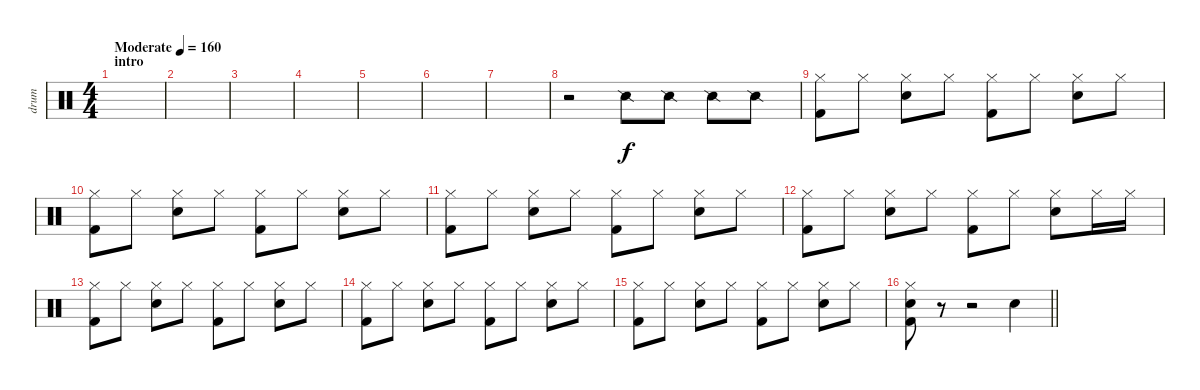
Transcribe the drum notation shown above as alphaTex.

\track ("drum" "drum") {instrument percussion}
\staff {score}
\articulation defaults
\ts (4 4)
\section ("" "intro")
\tempo (160 "Moderate")
\clef neutral
\ks c
|
|
|
|
|
|
|
r.2 "Snare (side stick) 2".8 "Snare (side stick) 2".8 "Snare (side stick) 2".8 "Snare (side stick) 2".8 |
("Hi-Hat (closed)" "Kick (hit) 2").8 "Hi-Hat (closed)".8 ("Hi-Hat (closed)" "Snare (hit) 2").8 "Hi-Hat (closed)".8 ("Hi-Hat (closed)" "Kick (hit) 2").8 "Hi-Hat (closed)".8 ("Hi-Hat (closed)" "Snare (hit) 2").8 "Hi-Hat (closed)".8 |
("Hi-Hat (closed)" "Kick (hit) 2").8 "Hi-Hat (closed)".8 ("Hi-Hat (closed)" "Snare (hit) 2").8 "Hi-Hat (closed)".8 ("Hi-Hat (closed)" "Kick (hit) 2").8 "Hi-Hat (closed)".8 ("Hi-Hat (closed)" "Snare (hit) 2").8 "Hi-Hat (closed)".8 |
("Hi-Hat (closed)" "Kick (hit) 2").8 "Hi-Hat (closed)".8 ("Hi-Hat (closed)" "Snare (hit) 2").8 "Hi-Hat (closed)".8 ("Hi-Hat (closed)" "Kick (hit) 2").8 "Hi-Hat (closed)".8 ("Hi-Hat (closed)" "Snare (hit) 2").8 "Hi-Hat (closed)".8 |
("Hi-Hat (closed)" "Kick (hit) 2").8 "Hi-Hat (closed)".8 ("Hi-Hat (closed)" "Snare (hit) 2").8 "Hi-Hat (closed)".8 ("Hi-Hat (closed)" "Kick (hit) 2").8 "Hi-Hat (closed)".8 ("Hi-Hat (closed)" "Snare (hit) 2").8 "Hi-Hat (closed)".16 "Hi-Hat (closed)".16 |
("Hi-Hat (closed)" "Kick (hit) 2").8 "Hi-Hat (closed)".8 ("Hi-Hat (closed)" "Snare (hit) 2").8 "Hi-Hat (closed)".8 ("Hi-Hat (closed)" "Kick (hit) 2").8 "Hi-Hat (closed)".8 ("Hi-Hat (closed)" "Snare (hit) 2").8 "Hi-Hat (closed)".8 |
("Hi-Hat (closed)" "Kick (hit) 2").8 "Hi-Hat (closed)".8 ("Hi-Hat (closed)" "Snare (hit) 2").8 "Hi-Hat (closed)".8 ("Hi-Hat (closed)" "Kick (hit) 2").8 "Hi-Hat (closed)".8 ("Hi-Hat (closed)" "Snare (hit) 2").8 "Hi-Hat (closed)".8 |
("Hi-Hat (closed)" "Kick (hit) 2").8 "Hi-Hat (closed)".8 ("Hi-Hat (closed)" "Snare (hit) 2").8 "Hi-Hat (closed)".8 ("Hi-Hat (closed)" "Kick (hit) 2").8 "Hi-Hat (closed)".8 ("Hi-Hat (closed)" "Snare (hit) 2").8 "Hi-Hat (closed)".8 |
\barLineRight lightlight
("Hi-Hat (closed)" "Snare (hit) 2" "Kick (hit) 2").8 r.8 r.2 "Snare (hit) 2".4
